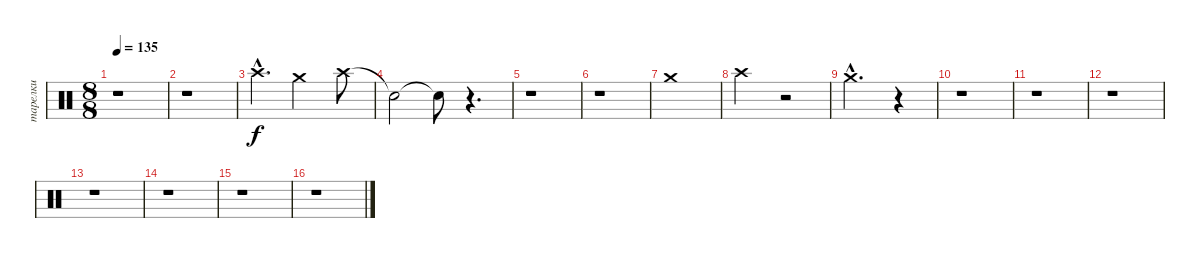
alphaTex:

\track ("тарелки" "тарелки") {instrument percussion}
\staff {score}
\articulation defaults
\ts (8 8)
\tempo 135
\clef neutral
\ks c
r.1{dy f} |
r.1 |
"Crash high (hit)"{hac}.4{d} "Crash medium (hit)".2 "Crash high (hit)".8 |
"Snare (hit)"{t}.2 "Snare (hit)"{t}.8 r.4{d} |
r.1 |
r.1 |
"Crash medium (hit)".1 |
"Crash high (hit)".2 r.2 |
"Crash medium (hit)"{hac}.2{d} r.4 |
r.1 |
r.1 |
r.1 |
r.1 |
r.1 |
r.1 |
r.1
